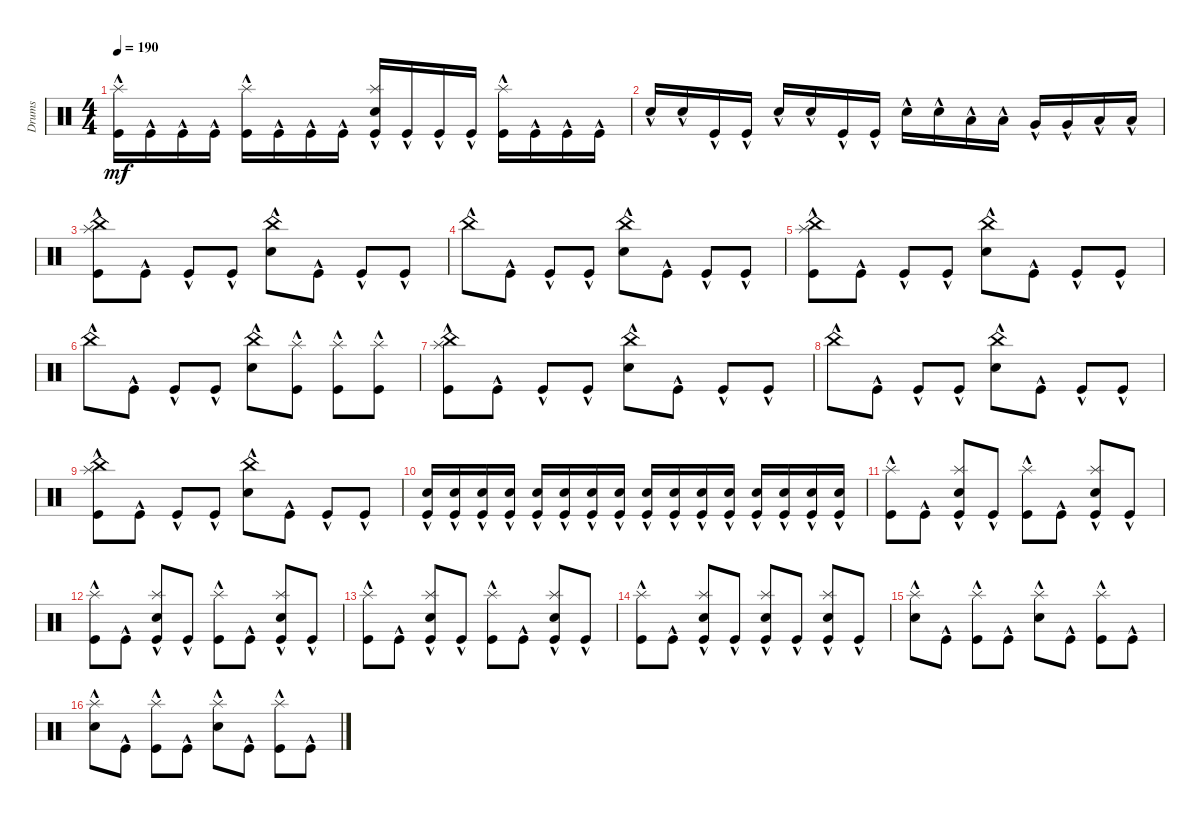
\track ("Drums" "Drums") {instrument percussion}
\staff {score}
\articulation defaults
\ts (4 4)
\tempo 190
\clef neutral
\ks c
("Kick (hit)"{hac} "Splash (hit)"{hac}).16{dy mf} "Kick (hit)"{hac}.16 "Kick (hit)"{hac}.16 "Kick (hit)"{hac}.16 ("Kick (hit)"{hac} "Splash (hit)"{hac}).16 "Kick (hit)"{hac}.16 "Kick (hit)"{hac}.16 "Kick (hit)"{hac}.16 ("Kick (hit)"{hac} "Splash (hit)"{hac} "Snare (hit) 2"{hac}).16 "Kick (hit)"{hac}.16 "Kick (hit)"{hac}.16 "Kick (hit)"{hac}.16 ("Kick (hit)"{hac} "Splash (hit)"{hac}).16 "Kick (hit)"{hac}.16 "Kick (hit)"{hac}.16 "Kick (hit)"{hac}.16 |
"Snare (hit) 2"{hac}.16 "Snare (hit) 2"{hac}.16 "Kick (hit)"{hac}.16 "Kick (hit)"{hac}.16 "Snare (hit) 2"{hac}.16 "Snare (hit) 2"{hac}.16 "Kick (hit)"{hac}.16 "Kick (hit)"{hac}.16 "Snare (hit) 2"{hac}.16 "Snare (hit) 2"{hac}.16 "Low Tom (hit)"{hac}.16 "Low Tom (hit)"{hac}.16 "Very Low Tom (hit)"{hac}.16 "Very Low Tom (hit)"{hac}.16 "Low Floor Tom (hit)"{hac}.16 "Low Floor Tom (hit)"{hac}.16 |
("Kick (hit)"{hac} "Splash (hit)"{hac} "China (hit)"{hac}).8 "Kick (hit)"{hac}.8 "Kick (hit)"{hac}.8 "Kick (hit)"{hac}.8 ("Snare (hit) 2"{hac} "China (hit)"{hac}).8 "Kick (hit)"{hac}.8 "Kick (hit)"{hac}.8 "Kick (hit)"{hac}.8 |
"China (hit)"{hac}.8 "Kick (hit)"{hac}.8 "Kick (hit)"{hac}.8 "Kick (hit)"{hac}.8 ("Snare (hit) 2"{hac} "China (hit)"{hac}).8 "Kick (hit)"{hac}.8 "Kick (hit)"{hac}.8 "Kick (hit)"{hac}.8 |
("Kick (hit)"{hac} "Splash (hit)"{hac} "China (hit)"{hac}).8 "Kick (hit)"{hac}.8 "Kick (hit)"{hac}.8 "Kick (hit)"{hac}.8 ("Snare (hit) 2"{hac} "China (hit)"{hac}).8 "Kick (hit)"{hac}.8 "Kick (hit)"{hac}.8 "Kick (hit)"{hac}.8 |
"China (hit)"{hac}.8 "Kick (hit)"{hac}.8 "Kick (hit)"{hac}.8 "Kick (hit)"{hac}.8 ("Snare (hit) 2"{hac} "China (hit)"{hac}).8 ("Kick (hit)"{hac} "Splash (hit)"{hac}).8 ("Kick (hit)"{hac} "Splash (hit)"{hac}).8 ("Kick (hit)"{hac} "Splash (hit)"{hac}).8 |
("Kick (hit)"{hac} "Splash (hit)"{hac} "China (hit)"{hac}).8 "Kick (hit)"{hac}.8 "Kick (hit)"{hac}.8 "Kick (hit)"{hac}.8 ("Snare (hit) 2"{hac} "China (hit)"{hac}).8 "Kick (hit)"{hac}.8 "Kick (hit)"{hac}.8 "Kick (hit)"{hac}.8 |
"China (hit)"{hac}.8 "Kick (hit)"{hac}.8 "Kick (hit)"{hac}.8 "Kick (hit)"{hac}.8 ("Snare (hit) 2"{hac} "China (hit)"{hac}).8 "Kick (hit)"{hac}.8 "Kick (hit)"{hac}.8 "Kick (hit)"{hac}.8 |
("Kick (hit)"{hac} "Splash (hit)"{hac} "China (hit)"{hac}).8 "Kick (hit)"{hac}.8 "Kick (hit)"{hac}.8 "Kick (hit)"{hac}.8 ("Snare (hit) 2"{hac} "China (hit)"{hac}).8 "Kick (hit)"{hac}.8 "Kick (hit)"{hac}.8 "Kick (hit)"{hac}.8 |
("Snare (hit) 2"{hac} "Kick (hit)"{hac}).16 ("Snare (hit) 2"{hac} "Kick (hit)"{hac}).16 ("Snare (hit) 2"{hac} "Kick (hit)"{hac}).16 ("Snare (hit) 2"{hac} "Kick (hit)"{hac}).16 ("Snare (hit) 2"{hac} "Kick (hit)"{hac}).16 ("Snare (hit) 2"{hac} "Kick (hit)"{hac}).16 ("Snare (hit) 2"{hac} "Kick (hit)"{hac}).16 ("Snare (hit) 2"{hac} "Kick (hit)"{hac}).16 ("Snare (hit) 2"{hac} "Kick (hit)"{hac}).16 ("Snare (hit) 2"{hac} "Kick (hit)"{hac}).16 ("Snare (hit) 2"{hac} "Kick (hit)"{hac}).16 ("Snare (hit) 2"{hac} "Kick (hit)"{hac}).16 ("Snare (hit) 2"{hac} "Kick (hit)"{hac}).16 ("Snare (hit) 2"{hac} "Kick (hit)"{hac}).16 ("Snare (hit) 2"{hac} "Kick (hit)"{hac}).16 ("Snare (hit) 2"{hac} "Kick (hit)"{hac}).16 |
("Kick (hit)"{hac} "Splash (hit)"{hac}).8 "Kick (hit)"{hac}.8 ("Kick (hit)"{hac} "Snare (hit) 2"{hac} "Splash (hit)"{hac}).8 "Kick (hit)"{hac}.8 ("Kick (hit)"{hac} "Splash (hit)"{hac}).8 "Kick (hit)"{hac}.8 ("Kick (hit)"{hac} "Snare (hit) 2"{hac} "Splash (hit)"{hac}).8 "Kick (hit)"{hac}.8 |
("Kick (hit)"{hac} "Splash (hit)"{hac}).8 "Kick (hit)"{hac}.8 ("Kick (hit)"{hac} "Snare (hit) 2"{hac} "Splash (hit)"{hac}).8 "Kick (hit)"{hac}.8 ("Kick (hit)"{hac} "Splash (hit)"{hac}).8 "Kick (hit)"{hac}.8 ("Kick (hit)"{hac} "Snare (hit) 2"{hac} "Splash (hit)"{hac}).8 "Kick (hit)"{hac}.8 |
("Kick (hit)"{hac} "Splash (hit)"{hac}).8 "Kick (hit)"{hac}.8 ("Kick (hit)"{hac} "Snare (hit) 2"{hac} "Splash (hit)"{hac}).8 "Kick (hit)"{hac}.8 ("Kick (hit)"{hac} "Splash (hit)"{hac}).8 "Kick (hit)"{hac}.8 ("Kick (hit)"{hac} "Snare (hit) 2"{hac} "Splash (hit)"{hac}).8 "Kick (hit)"{hac}.8 |
("Kick (hit)"{hac} "Splash (hit)"{hac}).8 "Kick (hit)"{hac}.8 ("Snare (hit) 2"{hac} "Splash (hit)"{hac} "Kick (hit)"{hac}).8 "Kick (hit)"{hac}.8 ("Splash (hit)"{hac} "Snare (hit) 2"{hac} "Kick (hit)"{hac}).8 "Kick (hit)"{hac}.8 ("Snare (hit) 2"{hac} "Splash (hit)"{hac} "Kick (hit)"{hac}).8 "Kick (hit)"{hac}.8 |
("Snare (hit) 2"{hac} "Splash (hit)"{hac}).8 "Kick (hit)"{hac}.8 ("Kick (hit)"{hac} "Splash (hit)"{hac}).8 "Kick (hit)"{hac}.8 ("Snare (hit) 2"{hac} "Splash (hit)"{hac}).8 "Kick (hit)"{hac}.8 ("Kick (hit)"{hac} "Splash (hit)"{hac}).8 "Kick (hit)"{hac}.8 |
("Snare (hit) 2"{hac} "Splash (hit)"{hac}).8 "Kick (hit)"{hac}.8 ("Kick (hit)"{hac} "Splash (hit)"{hac}).8 "Kick (hit)"{hac}.8 ("Snare (hit) 2"{hac} "Splash (hit)"{hac}).8 "Kick (hit)"{hac}.8 ("Kick (hit)"{hac} "Splash (hit)"{hac}).8 "Kick (hit)"{hac}.8
